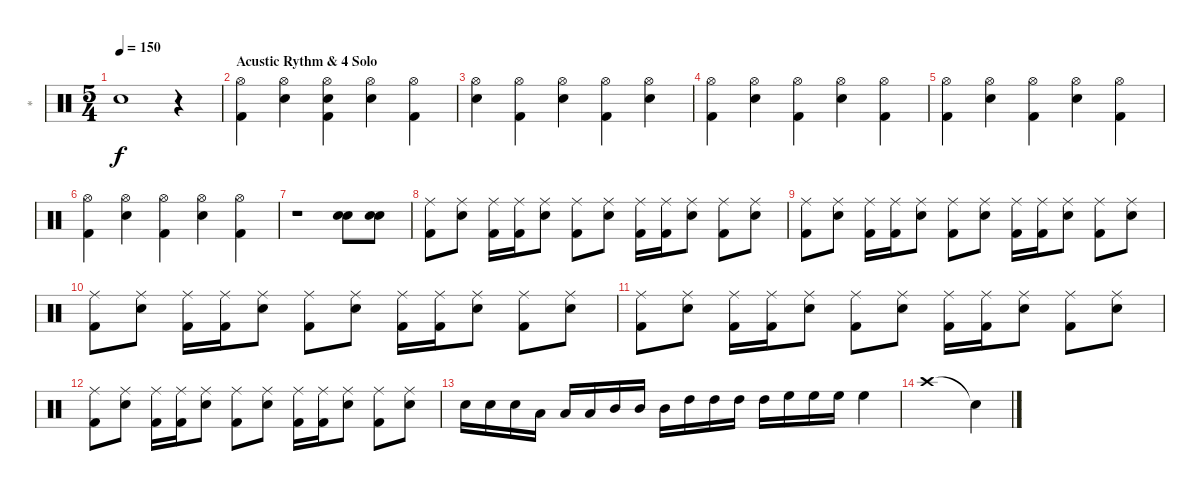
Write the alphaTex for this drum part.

\track ("*" "*") {instrument percussion}
\staff {score}
\articulation defaults
\ts (5 4)
\tempo 150
\clef neutral
\ks c "Electric Snare (hit)".1{dy f}
r.4 |
\section ("" "Acustic Rythm & 4 Solo ")
("Hi-Hat (open)" "Kick (hit) 2").4 ("Hi-Hat (open)" "Electric Snare (hit)").4 ("Hi-Hat (open)" "Snare (hit)" "Kick (hit) 2").4 ("Hi-Hat (open)" "Electric Snare (hit)").4 ("Hi-Hat (open)" "Kick (hit) 2").4 |
("Hi-Hat (open)" "Electric Snare (hit)").4 ("Hi-Hat (open)" "Kick (hit) 2").4 ("Hi-Hat (open)" "Electric Snare (hit)").4 ("Hi-Hat (open)" "Kick (hit) 2").4 ("Hi-Hat (open)" "Electric Snare (hit)").4 |
("Hi-Hat (open)" "Kick (hit) 2").4 ("Hi-Hat (open)" "Electric Snare (hit)").4 ("Hi-Hat (open)" "Kick (hit) 2").4 ("Hi-Hat (open)" "Electric Snare (hit)").4 ("Hi-Hat (open)" "Kick (hit) 2").4 |
("Hi-Hat (open)" "Kick (hit) 2").4 ("Hi-Hat (open)" "Electric Snare (hit)").4 ("Hi-Hat (open)" "Kick (hit) 2").4 ("Hi-Hat (open)" "Electric Snare (hit)").4 ("Hi-Hat (open)" "Kick (hit) 2").4 |
("Hi-Hat (open)" "Kick (hit) 2").4 ("Hi-Hat (open)" "Electric Snare (hit)").4 ("Hi-Hat (open)" "Kick (hit) 2").4 ("Hi-Hat (open)" "Electric Snare (hit)").4 ("Hi-Hat (open)" "Kick (hit) 2").4 |
r.1 ("Snare (hit) 2" "Electric Snare (hit)").8 ("Snare (hit) 2" "Electric Snare (hit)").8 |
("Ride (middle)" "Kick (hit) 2").8 ("Ride (middle)" "Electric Snare (hit)").8 ("Ride (middle)" "Kick (hit) 2").16 ("Ride (middle)" "Kick (hit) 2").16 ("Ride (middle)" "Electric Snare (hit)").8 ("Ride (middle)" "Kick (hit) 2").8 ("Ride (middle)" "Electric Snare (hit)").8 ("Ride (middle)" "Kick (hit) 2").16 ("Ride (middle)" "Kick (hit) 2").16 ("Ride (middle)" "Electric Snare (hit)").8 ("Ride (middle)" "Kick (hit) 2").8 ("Ride (middle)" "Electric Snare (hit)").8 |
("Ride (middle)" "Kick (hit) 2").8 ("Ride (middle)" "Electric Snare (hit)").8 ("Ride (middle)" "Kick (hit) 2").16 ("Ride (middle)" "Kick (hit) 2").16 ("Ride (middle)" "Electric Snare (hit)").8 ("Ride (middle)" "Kick (hit) 2").8 ("Ride (middle)" "Electric Snare (hit)").8 ("Ride (middle)" "Kick (hit) 2").16 ("Ride (middle)" "Kick (hit) 2").16 ("Ride (middle)" "Electric Snare (hit)").8 ("Ride (middle)" "Kick (hit) 2").8 ("Ride (middle)" "Electric Snare (hit)").8 |
("Ride (middle)" "Kick (hit) 2").8 ("Ride (middle)" "Electric Snare (hit)").8 ("Ride (middle)" "Kick (hit) 2").16 ("Ride (middle)" "Kick (hit) 2").16 ("Ride (middle)" "Electric Snare (hit)").8 ("Ride (middle)" "Kick (hit) 2").8 ("Ride (middle)" "Electric Snare (hit)").8 ("Ride (middle)" "Kick (hit) 2").16 ("Ride (middle)" "Kick (hit) 2").16 ("Ride (middle)" "Electric Snare (hit)").8 ("Ride (middle)" "Kick (hit) 2").8 ("Ride (middle)" "Electric Snare (hit)").8 |
("Ride (middle)" "Kick (hit) 2").8 ("Ride (middle)" "Electric Snare (hit)").8 ("Ride (middle)" "Kick (hit) 2").16 ("Ride (middle)" "Kick (hit) 2").16 ("Ride (middle)" "Electric Snare (hit)").8 ("Ride (middle)" "Kick (hit) 2").8 ("Ride (middle)" "Electric Snare (hit)").8 ("Ride (middle)" "Kick (hit) 2").16 ("Ride (middle)" "Kick (hit) 2").16 ("Ride (middle)" "Electric Snare (hit)").8 ("Ride (middle)" "Kick (hit) 2").8 ("Ride (middle)" "Electric Snare (hit)").8 |
("Ride (middle)" "Kick (hit) 2").8 ("Ride (middle)" "Electric Snare (hit)").8 ("Ride (middle)" "Kick (hit) 2").16 ("Ride (middle)" "Kick (hit) 2").16 ("Ride (middle)" "Electric Snare (hit)").8 ("Ride (middle)" "Kick (hit) 2").8 ("Ride (middle)" "Electric Snare (hit)").8 ("Ride (middle)" "Kick (hit) 2").16 ("Ride (middle)" "Kick (hit) 2").16 ("Ride (middle)" "Electric Snare (hit)").8 ("Ride (middle)" "Kick (hit) 2").8 ("Ride (middle)" "Electric Snare (hit)").8 |
"Electric Snare (hit)".16 "Electric Snare (hit)".16 "Electric Snare (hit)".16 "Low Tom (hit)".16 "Low Tom (hit)".16 "Low Tom (hit)".16 "Mid Tom (hit)".16 "Mid Tom (hit)".16 "Mid Tom (hit)".16 "High Tom (hit)".16 "High Tom (hit)".16 "High Tom (hit)".16 "High Tom (hit)".16 "High Floor Tom (hit)".16 "High Floor Tom (hit)".16 "High Floor Tom (hit)".16 "High Floor Tom (hit)".4 |
"Crash high (hit)".1 "Snare (hit)"{t}.4
